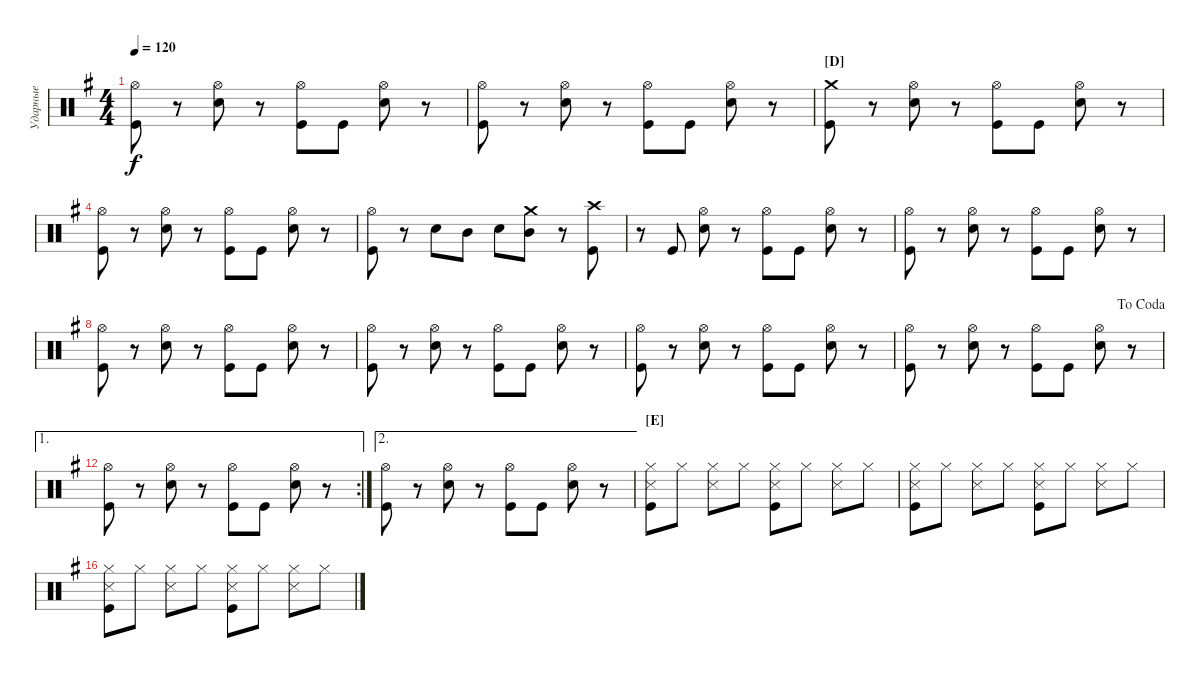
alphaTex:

\defaultSystemsLayout 4
\bracketExtendMode groupsimilarinstruments
\multiTrackTrackNamePolicy hidden
\firstSystemTrackNameMode fullname
\otherSystemsTrackNameMode fullname
\otherSystemsTrackNameOrientation horizontal
\defaultBarNumberDisplay FirstOfSystem
\track ("Ударные" "Drums") {multiBarRest instrument percussion}
\staff {score}
\articulation defaults
\ts (4 4)
\tempo 120
\clef neutral
\ks eminor
("Kick (hit)" "Hi-Hat (open)").8{dy f} r.8 ("Snare (hit) 2" "Hi-Hat (open)").8 r.8 ("Kick (hit)" "Hi-Hat (open)").8 "Kick (hit)".8 ("Snare (hit) 2" "Hi-Hat (open)").8 r.8 |
("Kick (hit)" "Hi-Hat (open)").8 r.8 ("Snare (hit) 2" "Hi-Hat (open)").8 r.8 ("Kick (hit)" "Hi-Hat (open)").8 "Kick (hit)".8 ("Snare (hit) 2" "Hi-Hat (open)").8 r.8 |
\section ("D" "")
("Crash medium (hit)" "Kick (hit)").8 r.8 ("Snare (hit) 2" "Hi-Hat (open)").8 r.8 ("Kick (hit)" "Hi-Hat (open)").8 "Kick (hit)".8 ("Snare (hit) 2" "Hi-Hat (open)").8 r.8 |
("Kick (hit)" "Hi-Hat (open)").8 r.8 ("Snare (hit) 2" "Hi-Hat (open)").8 r.8 ("Kick (hit)" "Hi-Hat (open)").8 "Kick (hit)".8 ("Snare (hit) 2" "Hi-Hat (open)").8 r.8 |
("Kick (hit)" "Hi-Hat (open)").8 r.8 "Snare (hit) 2".8 "Mid Tom (hit)".8 "Snare (hit) 2".8 ("Mid Tom (hit)" "Crash medium (hit)").8 r.8 ("Kick (hit)" "Crash high (hit)").8 |
r.8 "Kick (hit)".8 ("Snare (hit) 2" "Hi-Hat (open)").8 r.8 ("Kick (hit)" "Hi-Hat (open)").8 "Kick (hit)".8 ("Snare (hit) 2" "Hi-Hat (open)").8 r.8 |
("Kick (hit)" "Hi-Hat (open)").8 r.8 ("Snare (hit) 2" "Hi-Hat (open)").8 r.8 ("Kick (hit)" "Hi-Hat (open)").8 "Kick (hit)".8 ("Snare (hit) 2" "Hi-Hat (open)").8 r.8 |
("Kick (hit)" "Hi-Hat (open)").8 r.8 ("Snare (hit) 2" "Hi-Hat (open)").8 r.8 ("Kick (hit)" "Hi-Hat (open)").8 "Kick (hit)".8 ("Snare (hit) 2" "Hi-Hat (open)").8 r.8 |
("Kick (hit)" "Hi-Hat (open)").8 r.8 ("Snare (hit) 2" "Hi-Hat (open)").8 r.8 ("Kick (hit)" "Hi-Hat (open)").8 "Kick (hit)".8 ("Snare (hit) 2" "Hi-Hat (open)").8 r.8 |
("Kick (hit)" "Hi-Hat (open)").8 r.8 ("Snare (hit) 2" "Hi-Hat (open)").8 r.8 ("Kick (hit)" "Hi-Hat (open)").8 "Kick (hit)".8 ("Snare (hit) 2" "Hi-Hat (open)").8 r.8 |
\jump dacoda
("Kick (hit)" "Hi-Hat (open)").8 r.8 ("Snare (hit) 2" "Hi-Hat (open)").8 r.8 ("Kick (hit)" "Hi-Hat (open)").8 "Kick (hit)".8 ("Snare (hit) 2" "Hi-Hat (open)").8 r.8 |
\ae 1
\rc 2
("Kick (hit)" "Hi-Hat (open)").8 r.8 ("Snare (hit) 2" "Hi-Hat (open)").8 r.8 ("Kick (hit)" "Hi-Hat (open)").8 "Kick (hit)".8 ("Snare (hit) 2" "Hi-Hat (open)").8 r.8 |
\ae 2
("Kick (hit)" "Hi-Hat (open)").8 r.8 ("Snare (hit) 2" "Hi-Hat (open)").8 r.8 ("Kick (hit)" "Hi-Hat (open)").8 "Kick (hit)".8 ("Snare (hit) 2" "Hi-Hat (open)").8 r.8 |
\section ("E" "")
("Hi-Hat (closed)" "Snare (side stick) 3" "Kick (hit)").8 "Hi-Hat (closed)".8 ("Hi-Hat (closed)" "Snare (side stick) 3").8 "Hi-Hat (closed)".8 ("Hi-Hat (closed)" "Snare (side stick) 3" "Kick (hit)").8 "Hi-Hat (closed)".8 ("Hi-Hat (closed)" "Snare (side stick) 3").8 "Hi-Hat (closed)".8 |
("Hi-Hat (closed)" "Snare (side stick) 3" "Kick (hit)").8 "Hi-Hat (closed)".8 ("Hi-Hat (closed)" "Snare (side stick) 3").8 "Hi-Hat (closed)".8 ("Hi-Hat (closed)" "Snare (side stick) 3" "Kick (hit)").8 "Hi-Hat (closed)".8 ("Hi-Hat (closed)" "Snare (side stick) 3").8 "Hi-Hat (closed)".8 |
("Hi-Hat (closed)" "Snare (side stick) 3" "Kick (hit)").8 "Hi-Hat (closed)".8 ("Hi-Hat (closed)" "Snare (side stick) 3").8 "Hi-Hat (closed)".8 ("Hi-Hat (closed)" "Snare (side stick) 3" "Kick (hit)").8 "Hi-Hat (closed)".8 ("Hi-Hat (closed)" "Snare (side stick) 3").8 "Hi-Hat (closed)".8
